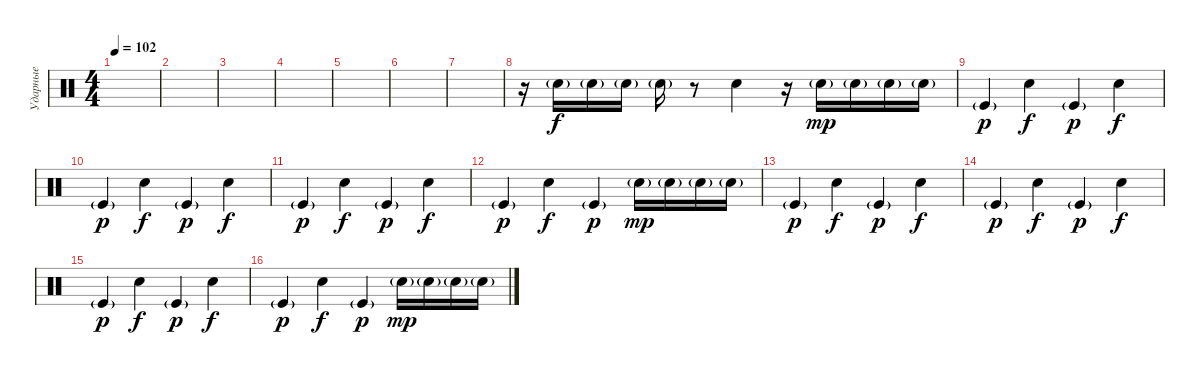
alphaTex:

\track ("Ударные" "Ударные") {instrument percussion}
\staff {score}
\articulation defaults
\ts (4 4)
\tempo 102
\clef neutral
\ks c
|
|
|
|
|
|
|
r.16 "Electric Snare (hit)"{g}.16 "Electric Snare (hit)"{g}.16 "Electric Snare (hit)"{g}.16 "Electric Snare (hit)"{g}.16 r.8 "Electric Snare (hit)".4{dy f} r.16 "Electric Snare (hit)"{g}.16{dy mp} "Electric Snare (hit)"{g}.16 "Electric Snare (hit)"{g}.16 "Electric Snare (hit)"{g}.16 |
"Kick (hit)"{g}.4{dy p} "Electric Snare (hit)".4{dy f} "Kick (hit)"{g}.4{dy p} "Electric Snare (hit)".4{dy f} |
"Kick (hit)"{g}.4{dy p} "Electric Snare (hit)".4{dy f} "Kick (hit)"{g}.4{dy p} "Electric Snare (hit)".4{dy f} |
"Kick (hit)"{g}.4{dy p} "Electric Snare (hit)".4{dy f} "Kick (hit)"{g}.4{dy p} "Electric Snare (hit)".4{dy f} |
"Kick (hit)"{g}.4{dy p} "Electric Snare (hit)".4{dy f} "Kick (hit)"{g}.4{dy p} "Electric Snare (hit)"{g}.16{dy mp} "Electric Snare (hit)"{g}.16 "Electric Snare (hit)"{g}.16 "Electric Snare (hit)"{g}.16 |
"Kick (hit)"{g}.4{dy p} "Electric Snare (hit)".4{dy f} "Kick (hit)"{g}.4{dy p} "Electric Snare (hit)".4{dy f} |
"Kick (hit)"{g}.4{dy p} "Electric Snare (hit)".4{dy f} "Kick (hit)"{g}.4{dy p} "Electric Snare (hit)".4{dy f} |
"Kick (hit)"{g}.4{dy p} "Electric Snare (hit)".4{dy f} "Kick (hit)"{g}.4{dy p} "Electric Snare (hit)".4{dy f} |
"Kick (hit)"{g}.4{dy p} "Electric Snare (hit)".4{dy f} "Kick (hit)"{g}.4{dy p} "Electric Snare (hit)"{g}.16{dy mp} "Electric Snare (hit)"{g}.16 "Electric Snare (hit)"{g}.16 "Electric Snare (hit)"{g}.16
